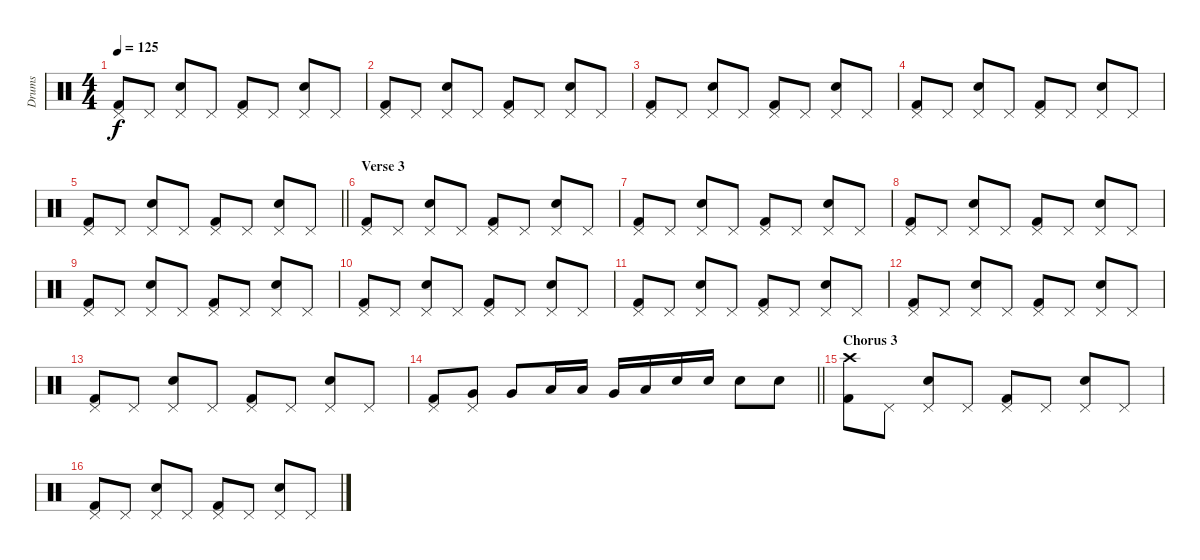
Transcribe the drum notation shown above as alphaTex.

\track ("Drums" "Drums") {instrument percussion}
\staff {score}
\articulation defaults
\ts (4 4)
\tempo 125
\clef neutral
\ks c
("Pedal Hi-Hat (hit)" "Kick (hit) 2").8{dy f} "Pedal Hi-Hat (hit)".8 ("Pedal Hi-Hat (hit)" "Snare (hit) 2").8 "Pedal Hi-Hat (hit)".8 ("Pedal Hi-Hat (hit)" "Kick (hit) 2").8 "Pedal Hi-Hat (hit)".8 ("Pedal Hi-Hat (hit)" "Snare (hit) 2").8 "Pedal Hi-Hat (hit)".8 |
("Pedal Hi-Hat (hit)" "Kick (hit) 2").8 "Pedal Hi-Hat (hit)".8 ("Pedal Hi-Hat (hit)" "Snare (hit) 2").8 "Pedal Hi-Hat (hit)".8 ("Pedal Hi-Hat (hit)" "Kick (hit) 2").8 "Pedal Hi-Hat (hit)".8 ("Pedal Hi-Hat (hit)" "Snare (hit) 2").8 "Pedal Hi-Hat (hit)".8 |
("Pedal Hi-Hat (hit)" "Kick (hit) 2").8 "Pedal Hi-Hat (hit)".8 ("Pedal Hi-Hat (hit)" "Snare (hit) 2").8 "Pedal Hi-Hat (hit)".8 ("Pedal Hi-Hat (hit)" "Kick (hit) 2").8 "Pedal Hi-Hat (hit)".8 ("Pedal Hi-Hat (hit)" "Snare (hit) 2").8 "Pedal Hi-Hat (hit)".8 |
("Pedal Hi-Hat (hit)" "Kick (hit) 2").8 "Pedal Hi-Hat (hit)".8 ("Pedal Hi-Hat (hit)" "Snare (hit) 2").8 "Pedal Hi-Hat (hit)".8 ("Pedal Hi-Hat (hit)" "Kick (hit) 2").8 "Pedal Hi-Hat (hit)".8 ("Pedal Hi-Hat (hit)" "Snare (hit) 2").8 "Pedal Hi-Hat (hit)".8 |
\barLineRight lightlight
("Pedal Hi-Hat (hit)" "Kick (hit) 2").8 "Pedal Hi-Hat (hit)".8 ("Pedal Hi-Hat (hit)" "Snare (hit) 2").8 "Pedal Hi-Hat (hit)".8 ("Pedal Hi-Hat (hit)" "Kick (hit) 2").8 "Pedal Hi-Hat (hit)".8 ("Pedal Hi-Hat (hit)" "Snare (hit) 2").8 "Pedal Hi-Hat (hit)".8 |
\section ("" "Verse 3")
("Pedal Hi-Hat (hit)" "Kick (hit) 2").8 "Pedal Hi-Hat (hit)".8 ("Pedal Hi-Hat (hit)" "Snare (hit) 2").8 "Pedal Hi-Hat (hit)".8 ("Pedal Hi-Hat (hit)" "Kick (hit) 2").8 "Pedal Hi-Hat (hit)".8 ("Pedal Hi-Hat (hit)" "Snare (hit) 2").8 "Pedal Hi-Hat (hit)".8 |
("Pedal Hi-Hat (hit)" "Kick (hit) 2").8 "Pedal Hi-Hat (hit)".8 ("Pedal Hi-Hat (hit)" "Snare (hit) 2").8 "Pedal Hi-Hat (hit)".8 ("Pedal Hi-Hat (hit)" "Kick (hit) 2").8 "Pedal Hi-Hat (hit)".8 ("Pedal Hi-Hat (hit)" "Snare (hit) 2").8 "Pedal Hi-Hat (hit)".8 |
("Pedal Hi-Hat (hit)" "Kick (hit) 2").8 "Pedal Hi-Hat (hit)".8 ("Pedal Hi-Hat (hit)" "Snare (hit) 2").8 "Pedal Hi-Hat (hit)".8 ("Pedal Hi-Hat (hit)" "Kick (hit) 2").8 "Pedal Hi-Hat (hit)".8 ("Pedal Hi-Hat (hit)" "Snare (hit) 2").8 "Pedal Hi-Hat (hit)".8 |
("Pedal Hi-Hat (hit)" "Kick (hit) 2").8 "Pedal Hi-Hat (hit)".8 ("Pedal Hi-Hat (hit)" "Snare (hit) 2").8 "Pedal Hi-Hat (hit)".8 ("Pedal Hi-Hat (hit)" "Kick (hit) 2").8 "Pedal Hi-Hat (hit)".8 ("Pedal Hi-Hat (hit)" "Snare (hit) 2").8 "Pedal Hi-Hat (hit)".8 |
("Pedal Hi-Hat (hit)" "Kick (hit) 2").8 "Pedal Hi-Hat (hit)".8 ("Pedal Hi-Hat (hit)" "Snare (hit) 2").8 "Pedal Hi-Hat (hit)".8 ("Pedal Hi-Hat (hit)" "Kick (hit) 2").8 "Pedal Hi-Hat (hit)".8 ("Pedal Hi-Hat (hit)" "Snare (hit) 2").8 "Pedal Hi-Hat (hit)".8 |
("Pedal Hi-Hat (hit)" "Kick (hit) 2").8 "Pedal Hi-Hat (hit)".8 ("Pedal Hi-Hat (hit)" "Snare (hit) 2").8 "Pedal Hi-Hat (hit)".8 ("Pedal Hi-Hat (hit)" "Kick (hit) 2").8 "Pedal Hi-Hat (hit)".8 ("Pedal Hi-Hat (hit)" "Snare (hit) 2").8 "Pedal Hi-Hat (hit)".8 |
("Pedal Hi-Hat (hit)" "Kick (hit) 2").8 "Pedal Hi-Hat (hit)".8 ("Pedal Hi-Hat (hit)" "Snare (hit) 2").8 "Pedal Hi-Hat (hit)".8 ("Pedal Hi-Hat (hit)" "Kick (hit) 2").8 "Pedal Hi-Hat (hit)".8 ("Pedal Hi-Hat (hit)" "Snare (hit) 2").8 "Pedal Hi-Hat (hit)".8 |
("Pedal Hi-Hat (hit)" "Kick (hit) 2").8 "Pedal Hi-Hat (hit)".8 ("Pedal Hi-Hat (hit)" "Snare (hit) 2").8 "Pedal Hi-Hat (hit)".8 ("Pedal Hi-Hat (hit)" "Kick (hit) 2").8 "Pedal Hi-Hat (hit)".8 ("Pedal Hi-Hat (hit)" "Snare (hit) 2").8 "Pedal Hi-Hat (hit)".8 |
\barLineRight lightlight
("Pedal Hi-Hat (hit)" "Kick (hit) 2").8 ("Pedal Hi-Hat (hit)" "Very Low Tom (hit)").8 "Very Low Tom (hit)".8 "Low Floor Tom (hit)".16 "Low Floor Tom (hit)".16 "Very Low Tom (hit)".16 "Low Tom (hit)".16 "Snare (hit) 2".16 "Snare (hit) 2".16 "Snare (hit) 2".8 "Snare (hit) 2".8 |
\section ("" "Chorus 3")
("Crash high (hit)" "Kick (hit) 2").8 "Pedal Hi-Hat (hit)".8 ("Pedal Hi-Hat (hit)" "Snare (hit) 2").8 "Pedal Hi-Hat (hit)".8 ("Pedal Hi-Hat (hit)" "Kick (hit) 2").8 "Pedal Hi-Hat (hit)".8 ("Pedal Hi-Hat (hit)" "Snare (hit) 2").8 "Pedal Hi-Hat (hit)".8 |
("Pedal Hi-Hat (hit)" "Kick (hit) 2").8 "Pedal Hi-Hat (hit)".8 ("Pedal Hi-Hat (hit)" "Snare (hit) 2").8 "Pedal Hi-Hat (hit)".8 ("Pedal Hi-Hat (hit)" "Kick (hit) 2").8 "Pedal Hi-Hat (hit)".8 ("Pedal Hi-Hat (hit)" "Snare (hit) 2").8 "Pedal Hi-Hat (hit)".8
